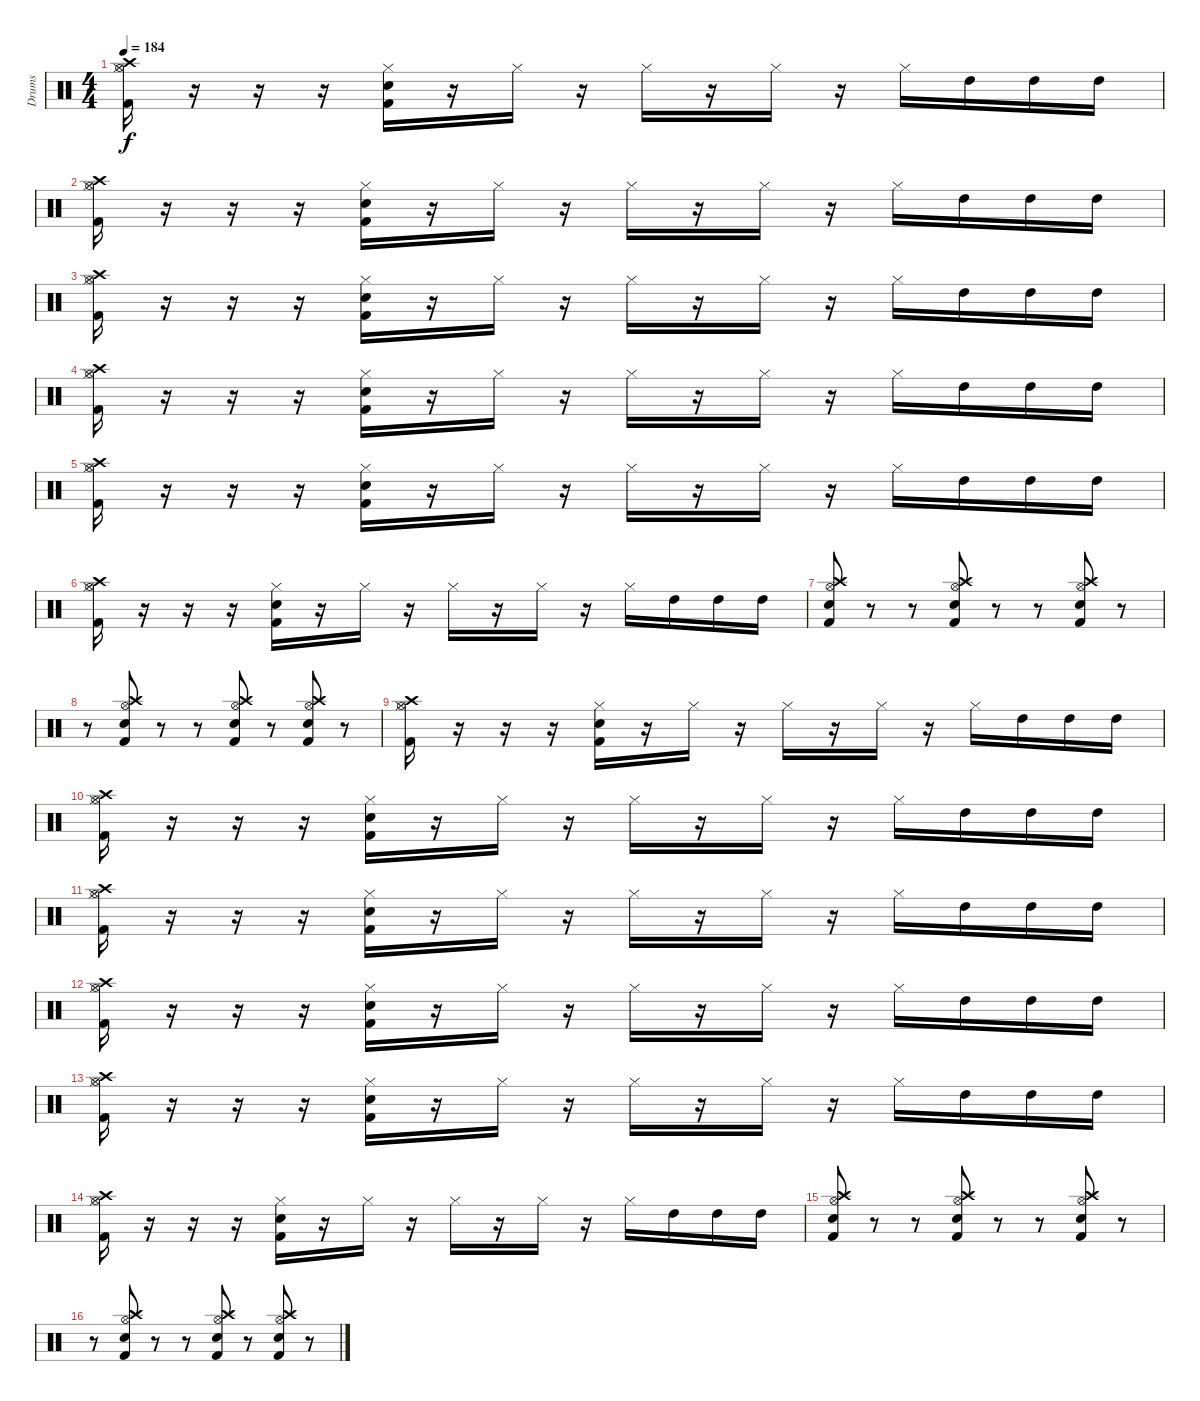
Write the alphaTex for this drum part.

\track ("Drums" "Drums") {instrument percussion}
\staff {score}
\articulation defaults
\ts (4 4)
\tempo 184
\clef neutral
\ks c
("Kick (hit) 2" "Hi-Hat (closed)" "Hi-Hat (open)" "Crash high (hit)").16{dy f} r.16 r.16 r.16 ("Kick (hit) 2" "Snare (hit) 2" "Hi-Hat (closed)").16 r.16 "Hi-Hat (closed)".16 r.16 "Hi-Hat (closed)".16 r.16 "Hi-Hat (closed)".16 r.16 "Hi-Hat (closed)".16 "High Tom (hit)".16 "High Tom (hit)".16 "High Tom (hit)".16 |
("Kick (hit) 2" "Hi-Hat (closed)" "Hi-Hat (open)" "Crash high (hit)").16 r.16 r.16 r.16 ("Kick (hit) 2" "Snare (hit) 2" "Hi-Hat (closed)").16 r.16 "Hi-Hat (closed)".16 r.16 "Hi-Hat (closed)".16 r.16 "Hi-Hat (closed)".16 r.16 "Hi-Hat (closed)".16 "High Tom (hit)".16 "High Tom (hit)".16 "High Tom (hit)".16 |
("Kick (hit) 2" "Hi-Hat (closed)" "Hi-Hat (open)" "Crash high (hit)").16 r.16 r.16 r.16 ("Kick (hit) 2" "Snare (hit) 2" "Hi-Hat (closed)").16 r.16 "Hi-Hat (closed)".16 r.16 "Hi-Hat (closed)".16 r.16 "Hi-Hat (closed)".16 r.16 "Hi-Hat (closed)".16 "High Tom (hit)".16 "High Tom (hit)".16 "High Tom (hit)".16 |
("Kick (hit) 2" "Hi-Hat (closed)" "Hi-Hat (open)" "Crash high (hit)").16 r.16 r.16 r.16 ("Kick (hit) 2" "Snare (hit) 2" "Hi-Hat (closed)").16 r.16 "Hi-Hat (closed)".16 r.16 "Hi-Hat (closed)".16 r.16 "Hi-Hat (closed)".16 r.16 "Hi-Hat (closed)".16 "High Tom (hit)".16 "High Tom (hit)".16 "High Tom (hit)".16 |
("Kick (hit) 2" "Hi-Hat (closed)" "Hi-Hat (open)" "Crash high (hit)").16 r.16 r.16 r.16 ("Kick (hit) 2" "Snare (hit) 2" "Hi-Hat (closed)").16 r.16 "Hi-Hat (closed)".16 r.16 "Hi-Hat (closed)".16 r.16 "Hi-Hat (closed)".16 r.16 "Hi-Hat (closed)".16 "High Tom (hit)".16 "High Tom (hit)".16 "High Tom (hit)".16 |
("Kick (hit) 2" "Hi-Hat (closed)" "Hi-Hat (open)" "Crash high (hit)").16 r.16 r.16 r.16 ("Kick (hit) 2" "Snare (hit) 2" "Hi-Hat (closed)").16 r.16 "Hi-Hat (closed)".16 r.16 "Hi-Hat (closed)".16 r.16 "Hi-Hat (closed)".16 r.16 "Hi-Hat (closed)".16 "High Tom (hit)".16 "High Tom (hit)".16 "High Tom (hit)".16 |
("Kick (hit) 2" "Electric Snare (hit)" "Hi-Hat (open)" "Crash high (hit)").8 r.8 r.8 ("Kick (hit) 2" "Electric Snare (hit)" "Hi-Hat (open)" "Crash high (hit)").8 r.8 r.8 ("Kick (hit) 2" "Electric Snare (hit)" "Hi-Hat (open)" "Crash high (hit)").8 r.8 |
r.8 ("Kick (hit) 2" "Electric Snare (hit)" "Hi-Hat (open)" "Crash high (hit)").8 r.8 r.8 ("Kick (hit) 2" "Electric Snare (hit)" "Hi-Hat (open)" "Crash high (hit)").8 r.8 ("Kick (hit) 2" "Electric Snare (hit)" "Hi-Hat (open)" "Crash high (hit)").8 r.8 |
("Kick (hit) 2" "Hi-Hat (closed)" "Hi-Hat (open)" "Crash high (hit)").16 r.16 r.16 r.16 ("Kick (hit) 2" "Snare (hit) 2" "Hi-Hat (closed)").16 r.16 "Hi-Hat (closed)".16 r.16 "Hi-Hat (closed)".16 r.16 "Hi-Hat (closed)".16 r.16 "Hi-Hat (closed)".16 "High Tom (hit)".16 "High Tom (hit)".16 "High Tom (hit)".16 |
("Kick (hit) 2" "Hi-Hat (closed)" "Hi-Hat (open)" "Crash high (hit)").16 r.16 r.16 r.16 ("Kick (hit) 2" "Snare (hit) 2" "Hi-Hat (closed)").16 r.16 "Hi-Hat (closed)".16 r.16 "Hi-Hat (closed)".16 r.16 "Hi-Hat (closed)".16 r.16 "Hi-Hat (closed)".16 "High Tom (hit)".16 "High Tom (hit)".16 "High Tom (hit)".16 |
("Kick (hit) 2" "Hi-Hat (closed)" "Hi-Hat (open)" "Crash high (hit)").16 r.16 r.16 r.16 ("Kick (hit) 2" "Snare (hit) 2" "Hi-Hat (closed)").16 r.16 "Hi-Hat (closed)".16 r.16 "Hi-Hat (closed)".16 r.16 "Hi-Hat (closed)".16 r.16 "Hi-Hat (closed)".16 "High Tom (hit)".16 "High Tom (hit)".16 "High Tom (hit)".16 |
("Kick (hit) 2" "Hi-Hat (closed)" "Hi-Hat (open)" "Crash high (hit)").16 r.16 r.16 r.16 ("Kick (hit) 2" "Snare (hit) 2" "Hi-Hat (closed)").16 r.16 "Hi-Hat (closed)".16 r.16 "Hi-Hat (closed)".16 r.16 "Hi-Hat (closed)".16 r.16 "Hi-Hat (closed)".16 "High Tom (hit)".16 "High Tom (hit)".16 "High Tom (hit)".16 |
("Kick (hit) 2" "Hi-Hat (closed)" "Hi-Hat (open)" "Crash high (hit)").16 r.16 r.16 r.16 ("Kick (hit) 2" "Snare (hit) 2" "Hi-Hat (closed)").16 r.16 "Hi-Hat (closed)".16 r.16 "Hi-Hat (closed)".16 r.16 "Hi-Hat (closed)".16 r.16 "Hi-Hat (closed)".16 "High Tom (hit)".16 "High Tom (hit)".16 "High Tom (hit)".16 |
("Kick (hit) 2" "Hi-Hat (closed)" "Hi-Hat (open)" "Crash high (hit)").16 r.16 r.16 r.16 ("Kick (hit) 2" "Snare (hit) 2" "Hi-Hat (closed)").16 r.16 "Hi-Hat (closed)".16 r.16 "Hi-Hat (closed)".16 r.16 "Hi-Hat (closed)".16 r.16 "Hi-Hat (closed)".16 "High Tom (hit)".16 "High Tom (hit)".16 "High Tom (hit)".16 |
("Kick (hit) 2" "Electric Snare (hit)" "Hi-Hat (open)" "Crash high (hit)").8 r.8 r.8 ("Kick (hit) 2" "Electric Snare (hit)" "Hi-Hat (open)" "Crash high (hit)").8 r.8 r.8 ("Kick (hit) 2" "Electric Snare (hit)" "Hi-Hat (open)" "Crash high (hit)").8 r.8 |
r.8 ("Kick (hit) 2" "Electric Snare (hit)" "Hi-Hat (open)" "Crash high (hit)").8 r.8 r.8 ("Kick (hit) 2" "Electric Snare (hit)" "Hi-Hat (open)" "Crash high (hit)").8 r.8 ("Kick (hit) 2" "Electric Snare (hit)" "Hi-Hat (open)" "Crash high (hit)").8 r.8
